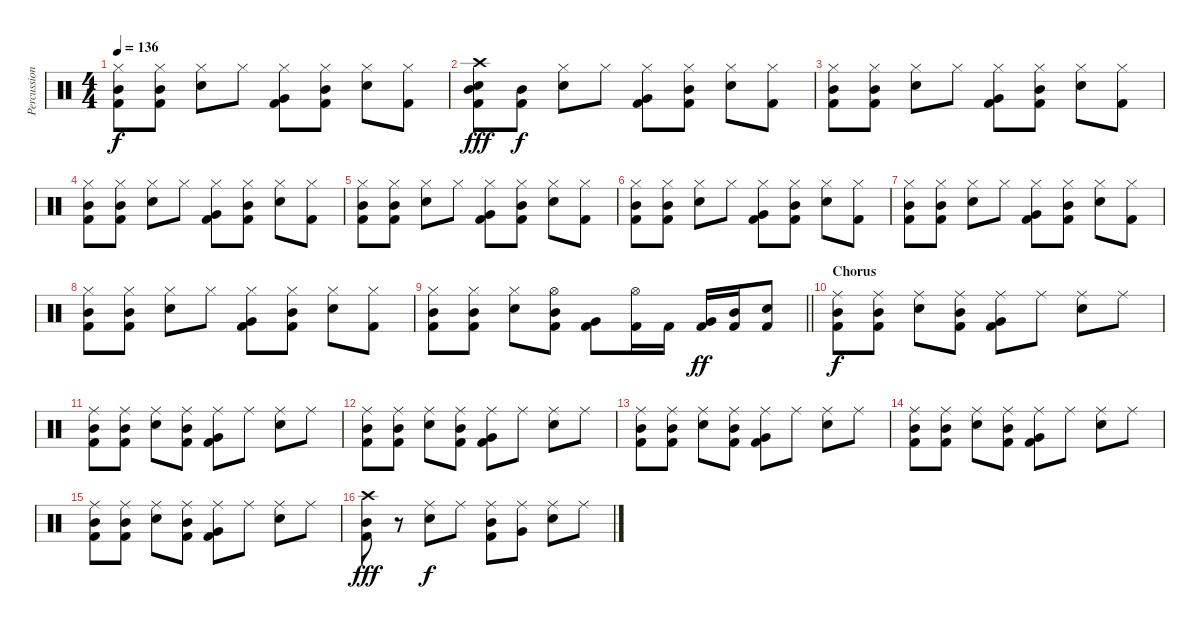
\track ("Percussion" "Percussion") {instrument percussion}
\staff {score}
\articulation defaults
\ts (4 4)
\tempo 136
\clef neutral
\ks c
("Hi-Hat (closed)" "Mid Tom (hit)" "Kick (hit) 2").8{dy f} ("Hi-Hat (closed)" "Mid Tom (hit)" "Kick (hit) 2").8 ("Hi-Hat (closed)" "Snare (hit) 2").8 "Hi-Hat (closed)".8 ("Hi-Hat (closed)" "Very Low Tom (hit)" "Kick (hit) 2").8 ("Hi-Hat (closed)" "Mid Tom (hit)" "Kick (hit) 2").8 ("Hi-Hat (closed)" "Snare (hit) 2").8 ("Hi-Hat (closed)" "Kick (hit) 2").8 |
("Crash high (hit)" "Mid Tom (hit)" "Snare (hit) 2" "Kick (hit) 2").8{dy fff} ("Mid Tom (hit)" "Kick (hit) 2").8{dy f} ("Hi-Hat (closed)" "Snare (hit) 2").8 "Hi-Hat (closed)".8 ("Hi-Hat (closed)" "Very Low Tom (hit)" "Kick (hit) 2").8 ("Hi-Hat (closed)" "Mid Tom (hit)" "Kick (hit) 2").8 ("Hi-Hat (closed)" "Snare (hit) 2").8 ("Hi-Hat (closed)" "Kick (hit) 2").8 |
("Hi-Hat (closed)" "Mid Tom (hit)" "Kick (hit) 2").8 ("Hi-Hat (closed)" "Mid Tom (hit)" "Kick (hit) 2").8 ("Hi-Hat (closed)" "Snare (hit) 2").8 "Hi-Hat (closed)".8 ("Hi-Hat (closed)" "Very Low Tom (hit)" "Kick (hit) 2").8 ("Hi-Hat (closed)" "Mid Tom (hit)" "Kick (hit) 2").8 ("Hi-Hat (closed)" "Snare (hit) 2").8 ("Hi-Hat (closed)" "Kick (hit) 2").8 |
("Hi-Hat (closed)" "Mid Tom (hit)" "Kick (hit) 2").8 ("Hi-Hat (closed)" "Mid Tom (hit)" "Kick (hit) 2").8 ("Hi-Hat (closed)" "Snare (hit) 2").8 "Hi-Hat (closed)".8 ("Hi-Hat (closed)" "Very Low Tom (hit)" "Kick (hit) 2").8 ("Hi-Hat (closed)" "Mid Tom (hit)" "Kick (hit) 2").8 ("Hi-Hat (closed)" "Snare (hit) 2").8 ("Hi-Hat (closed)" "Kick (hit) 2").8 |
("Hi-Hat (closed)" "Mid Tom (hit)" "Kick (hit) 2").8 ("Hi-Hat (closed)" "Mid Tom (hit)" "Kick (hit) 2").8 ("Hi-Hat (closed)" "Snare (hit) 2").8 "Hi-Hat (closed)".8 ("Hi-Hat (closed)" "Very Low Tom (hit)" "Kick (hit) 2").8 ("Hi-Hat (closed)" "Mid Tom (hit)" "Kick (hit) 2").8 ("Hi-Hat (closed)" "Snare (hit) 2").8 ("Hi-Hat (closed)" "Kick (hit) 2").8 |
("Hi-Hat (closed)" "Mid Tom (hit)" "Kick (hit) 2").8 ("Hi-Hat (closed)" "Mid Tom (hit)" "Kick (hit) 2").8 ("Hi-Hat (closed)" "Snare (hit) 2").8 "Hi-Hat (closed)".8 ("Hi-Hat (closed)" "Very Low Tom (hit)" "Kick (hit) 2").8 ("Hi-Hat (closed)" "Mid Tom (hit)" "Kick (hit) 2").8 ("Hi-Hat (closed)" "Snare (hit) 2").8 ("Hi-Hat (closed)" "Kick (hit) 2").8 |
("Hi-Hat (closed)" "Mid Tom (hit)" "Kick (hit) 2").8 ("Hi-Hat (closed)" "Mid Tom (hit)" "Kick (hit) 2").8 ("Hi-Hat (closed)" "Snare (hit) 2").8 "Hi-Hat (closed)".8 ("Hi-Hat (closed)" "Very Low Tom (hit)" "Kick (hit) 2").8 ("Hi-Hat (closed)" "Mid Tom (hit)" "Kick (hit) 2").8 ("Hi-Hat (closed)" "Snare (hit) 2").8 ("Hi-Hat (closed)" "Kick (hit) 2").8 |
("Hi-Hat (closed)" "Mid Tom (hit)" "Kick (hit) 2").8 ("Hi-Hat (closed)" "Mid Tom (hit)" "Kick (hit) 2").8 ("Hi-Hat (closed)" "Snare (hit) 2").8 "Hi-Hat (closed)".8 ("Hi-Hat (closed)" "Very Low Tom (hit)" "Kick (hit) 2").8 ("Hi-Hat (closed)" "Mid Tom (hit)" "Kick (hit) 2").8 ("Hi-Hat (closed)" "Snare (hit) 2").8 ("Hi-Hat (closed)" "Kick (hit) 2").8 |
\barLineRight lightlight
("Hi-Hat (closed)" "Mid Tom (hit)" "Kick (hit) 2").8 ("Hi-Hat (closed)" "Mid Tom (hit)" "Kick (hit) 2").8 ("Hi-Hat (closed)" "Snare (hit) 2").8 ("Hi-Hat (open)" "Mid Tom (hit)" "Kick (hit) 2").8 ("Very Low Tom (hit)" "Kick (hit) 2").8 ("Hi-Hat (open)" "Kick (hit) 2").16 "Kick (hit) 2".16 ("Very Low Tom (hit)" "Kick (hit) 2").16{dy ff} ("Mid Tom (hit)" "Kick (hit) 2").16 ("Snare (hit) 2" "Kick (hit) 2").8 |
\section ("" "Chorus")
("Ride (middle)" "Mid Tom (hit)" "Kick (hit) 2").8{dy f} ("Ride (middle)" "Mid Tom (hit)" "Kick (hit) 2").8 ("Ride (middle)" "Snare (hit) 2").8 ("Ride (middle)" "Mid Tom (hit)" "Kick (hit) 2").8 ("Ride (middle)" "Very Low Tom (hit)" "Kick (hit) 2").8 "Ride (middle)".8 ("Ride (middle)" "Snare (hit) 2").8 "Ride (middle)".8 |
("Ride (middle)" "Mid Tom (hit)" "Kick (hit) 2").8 ("Ride (middle)" "Mid Tom (hit)" "Kick (hit) 2").8 ("Ride (middle)" "Snare (hit) 2").8 ("Ride (middle)" "Mid Tom (hit)" "Kick (hit) 2").8 ("Ride (middle)" "Very Low Tom (hit)" "Kick (hit) 2").8 "Ride (middle)".8 ("Ride (middle)" "Snare (hit) 2").8 "Ride (middle)".8 |
("Ride (middle)" "Mid Tom (hit)" "Kick (hit) 2").8 ("Ride (middle)" "Mid Tom (hit)" "Kick (hit) 2").8 ("Ride (middle)" "Snare (hit) 2").8 ("Ride (middle)" "Mid Tom (hit)" "Kick (hit) 2").8 ("Ride (middle)" "Very Low Tom (hit)" "Kick (hit) 2").8 "Ride (middle)".8 ("Ride (middle)" "Snare (hit) 2").8 "Ride (middle)".8 |
("Ride (middle)" "Mid Tom (hit)" "Kick (hit) 2").8 ("Ride (middle)" "Mid Tom (hit)" "Kick (hit) 2").8 ("Ride (middle)" "Snare (hit) 2").8 ("Ride (middle)" "Mid Tom (hit)" "Kick (hit) 2").8 ("Ride (middle)" "Very Low Tom (hit)" "Kick (hit) 2").8 "Ride (middle)".8 ("Ride (middle)" "Snare (hit) 2").8 "Ride (middle)".8 |
("Ride (middle)" "Mid Tom (hit)" "Kick (hit) 2").8 ("Ride (middle)" "Mid Tom (hit)" "Kick (hit) 2").8 ("Ride (middle)" "Snare (hit) 2").8 ("Ride (middle)" "Mid Tom (hit)" "Kick (hit) 2").8 ("Ride (middle)" "Very Low Tom (hit)" "Kick (hit) 2").8 "Ride (middle)".8 ("Ride (middle)" "Snare (hit) 2").8 "Ride (middle)".8 |
("Ride (middle)" "Mid Tom (hit)" "Kick (hit) 2").8 ("Ride (middle)" "Mid Tom (hit)" "Kick (hit) 2").8 ("Ride (middle)" "Snare (hit) 2").8 ("Ride (middle)" "Mid Tom (hit)" "Kick (hit) 2").8 ("Ride (middle)" "Very Low Tom (hit)" "Kick (hit) 2").8 "Ride (middle)".8 ("Ride (middle)" "Snare (hit) 2").8 "Ride (middle)".8 |
("Crash high (hit)" "Mid Tom (hit)" "Kick (hit) 2").8{dy fff} r.8 ("Ride (middle)" "Snare (hit) 2").8{dy f} "Ride (middle)".8 ("Ride (middle)" "Mid Tom (hit)" "Kick (hit) 2").8 ("Ride (middle)" "Very Low Tom (hit)").8 ("Ride (middle)" "Snare (hit) 2").8 "Ride (middle)".8
